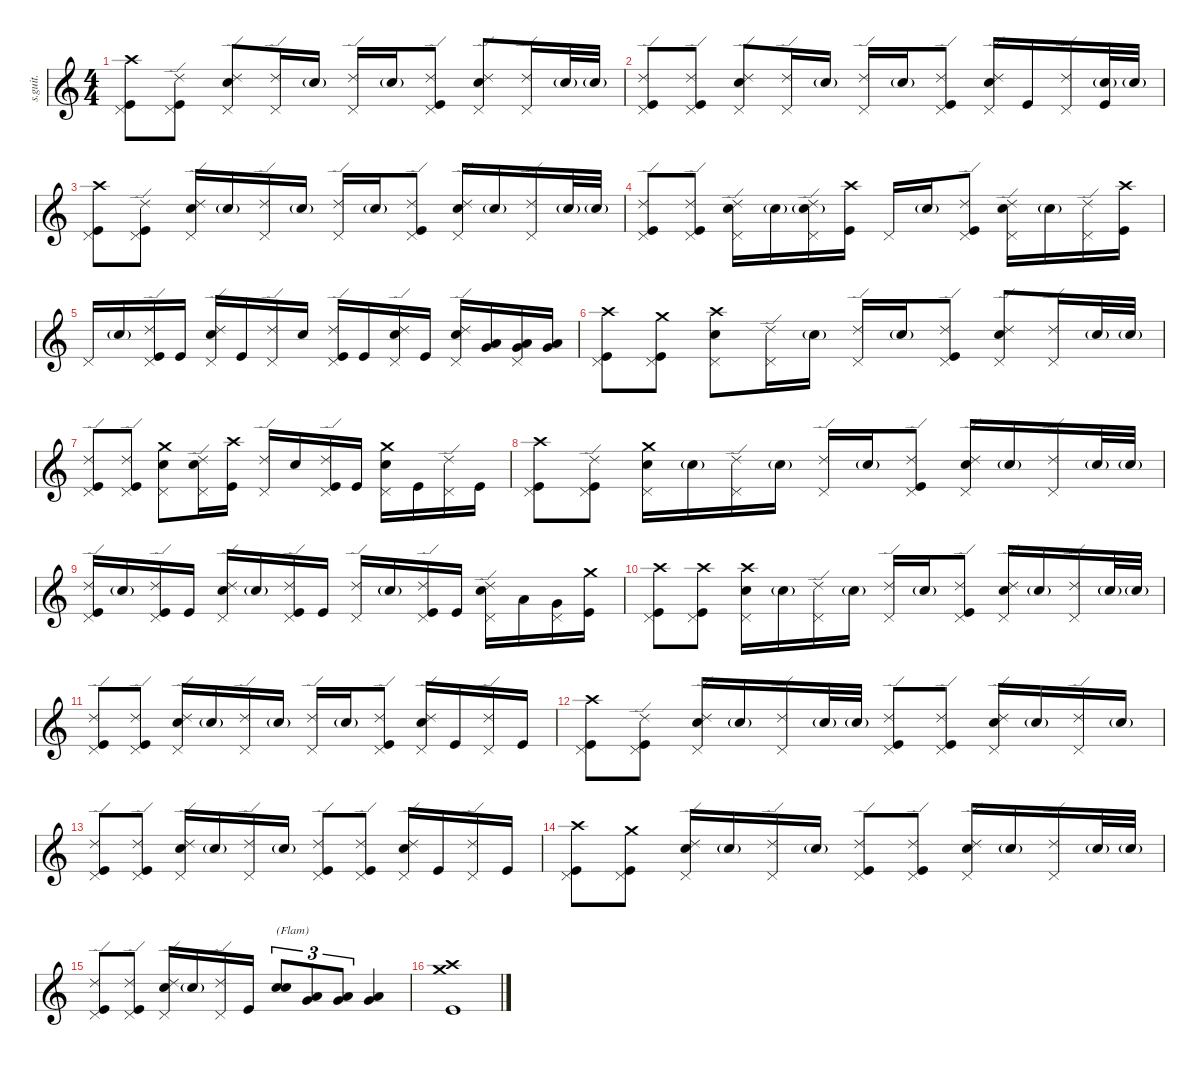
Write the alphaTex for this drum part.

\defaultSystemsLayout 4
\hideDynamics
\bracketExtendMode nobrackets
\track ("Chad Smith" "s.guit.") {instrument percussion}
\staff {score}
\articulation defaults
\ts (4 4)
\tempo (96 hide)
\clef g2
\ks c
("Crash high (hit)" "Kick (hit)" "Pedal Hi-Hat (hit)").8{dy f} ("Ride (edge) 2" "Kick (hit)" "Pedal Hi-Hat (hit)").8 ("Ride (edge) 2" "Snare (hit) 2" "Pedal Hi-Hat (hit)").8 ("Ride (edge) 2" "Pedal Hi-Hat (hit)").16 "Snare (hit) 2"{g}.16{dy pp} ("Ride (edge) 2" "Pedal Hi-Hat (hit)").16{dy f} "Snare (hit) 2"{g}.16{dy pp} ("Ride (edge) 2" "Kick (hit)" "Pedal Hi-Hat (hit)").8{dy f} ("Ride (edge) 2" "Snare (hit) 2" "Pedal Hi-Hat (hit)").8 ("Ride (edge) 2" "Pedal Hi-Hat (hit)").16 "Snare (hit) 2"{g}.32{dy pp} "Snare (hit) 2"{g}.32 |
("Ride (edge) 2" "Kick (hit)" "Pedal Hi-Hat (hit)").8{dy f} ("Ride (edge) 2" "Kick (hit)" "Pedal Hi-Hat (hit)").8 ("Ride (edge) 2" "Snare (hit) 2" "Pedal Hi-Hat (hit)").8 ("Ride (edge) 2" "Pedal Hi-Hat (hit)").16 "Snare (hit) 2"{g}.16{dy pp} ("Ride (edge) 2" "Pedal Hi-Hat (hit)").16{dy f} "Snare (hit) 2"{g}.16{dy pp} ("Ride (edge) 2" "Kick (hit)" "Pedal Hi-Hat (hit)").8{dy f} ("Ride (edge) 2" "Snare (hit) 2" "Pedal Hi-Hat (hit)").16 "Kick (hit)".16 ("Ride (edge) 2" "Pedal Hi-Hat (hit)").16 ("Snare (hit) 2"{g} "Kick (hit)").32 "Snare (hit) 2"{g}.32{dy pp} |
("Crash high (hit)" "Kick (hit)" "Pedal Hi-Hat (hit)").8{dy f} ("Ride (edge) 2" "Kick (hit)" "Pedal Hi-Hat (hit)").8 ("Ride (edge) 2" "Snare (hit) 2" "Pedal Hi-Hat (hit)").16 "Snare (hit) 2"{g}.16{dy pp} ("Ride (edge) 2" "Pedal Hi-Hat (hit)").16{dy f} "Snare (hit) 2"{g}.16{dy pp} ("Ride (edge) 2" "Pedal Hi-Hat (hit)").16{dy f} "Snare (hit) 2"{g}.16{dy pp} ("Ride (edge) 2" "Kick (hit)" "Pedal Hi-Hat (hit)").8{dy f} ("Ride (edge) 2" "Snare (hit) 2" "Pedal Hi-Hat (hit)").16 "Snare (hit) 2"{g}.16{dy pp} ("Ride (edge) 2" "Pedal Hi-Hat (hit)").16{dy f} "Snare (hit) 2"{g}.32{dy pp} "Snare (hit) 2"{g}.32 |
("Ride (edge) 2" "Kick (hit)" "Pedal Hi-Hat (hit)").8{dy f} ("Ride (edge) 2" "Kick (hit)" "Pedal Hi-Hat (hit)").8 ("Ride (edge) 2" "Snare (hit) 2" "Pedal Hi-Hat (hit)").16 "Snare (hit) 2"{g}.16{dy pp} ("Ride (edge) 2" "Snare (hit) 2"{g} "Pedal Hi-Hat (hit)").16{dy f} ("Crash high (hit)" "Kick (hit)").16 "Pedal Hi-Hat (hit)".16{dy fff} "Snare (hit) 2"{g}.16{dy pp} ("Ride (edge) 2" "Kick (hit)" "Pedal Hi-Hat (hit)").8{dy f} ("Ride (edge) 2" "Snare (hit) 2" "Pedal Hi-Hat (hit)").16 "Snare (hit) 2"{g}.16{dy pp} ("Ride (edge) 2" "Pedal Hi-Hat (hit)").16{dy f} ("Crash high (hit)" "Kick (hit)").16 |
"Pedal Hi-Hat (hit)".16{dy fff} "Snare (hit) 2"{g}.16{dy pp} ("Ride (edge) 2" "Kick (hit)" "Pedal Hi-Hat (hit)").16{dy f} "Kick (hit)".16 ("Ride (edge) 2" "Snare (hit) 2" "Pedal Hi-Hat (hit)").16 "Kick (hit)".16 ("Ride (edge) 2" "Pedal Hi-Hat (hit)").16 "Snare (hit) 2".16 ("Ride (edge) 2" "Kick (hit)" "Pedal Hi-Hat (hit)").16 "Kick (hit)".16 ("Ride (edge) 2" "Snare (hit) 2" "Pedal Hi-Hat (hit)").16 "Kick (hit)".16 ("Ride (edge) 2" "Snare (hit) 2" "Pedal Hi-Hat (hit)").16 ("Very Low Tom (hit)" "Low Floor Tom (hit)").16 ("Very Low Tom (hit)" "Low Floor Tom (hit)" "Pedal Hi-Hat (hit)").16 ("Very Low Tom (hit)" "Low Floor Tom (hit)").16 |
("Crash high (hit)" "Kick (hit)" "Pedal Hi-Hat (hit)").8 ("Crash medium (hit)" "Kick (hit)" "Pedal Hi-Hat (hit)").8 ("Crash high (hit)" "Snare (hit) 2" "Pedal Hi-Hat (hit)").8 ("Ride (edge) 2" "Pedal Hi-Hat (hit)").16 "Snare (hit) 2"{g}.16{dy pp} ("Ride (edge) 2" "Pedal Hi-Hat (hit)").16{dy f} "Snare (hit) 2"{g}.16{dy pp} ("Ride (edge) 2" "Kick (hit)" "Pedal Hi-Hat (hit)").8{dy f} ("Ride (edge) 2" "Snare (hit) 2" "Pedal Hi-Hat (hit)").8 ("Ride (edge) 2" "Pedal Hi-Hat (hit)").16 "Snare (hit) 2"{g}.32{dy pp} "Snare (hit) 2"{g}.32 |
("Ride (edge) 2" "Kick (hit)" "Pedal Hi-Hat (hit)").8{dy f} ("Ride (edge) 2" "Kick (hit)" "Pedal Hi-Hat (hit)").8 ("Crash medium (hit)" "Snare (hit) 2" "Pedal Hi-Hat (hit)").8 ("Ride (edge) 2" "Snare (hit) 2" "Pedal Hi-Hat (hit)").16 ("Crash high (hit)" "Kick (hit)").16 ("Ride (edge) 2" "Pedal Hi-Hat (hit)").16 "Snare (hit) 2".16 ("Ride (edge) 2" "Kick (hit)" "Pedal Hi-Hat (hit)").16 "Kick (hit)".16 ("Crash medium (hit)" "Snare (hit) 2" "Pedal Hi-Hat (hit)").16 "Kick (hit)".16 ("Ride (edge) 2" "Pedal Hi-Hat (hit)").16 "Kick (hit)".16 |
("Crash high (hit)" "Kick (hit)" "Pedal Hi-Hat (hit)").8 ("Ride (edge) 2" "Kick (hit)" "Pedal Hi-Hat (hit)").8 ("Crash medium (hit)" "Snare (hit) 2" "Pedal Hi-Hat (hit)").16 "Snare (hit) 2"{g}.16{dy pp} ("Ride (edge) 2" "Pedal Hi-Hat (hit)").16{dy f} "Snare (hit) 2"{g}.16{dy pp} ("Ride (edge) 2" "Pedal Hi-Hat (hit)").16{dy f} "Snare (hit) 2"{g}.16{dy pp} ("Ride (edge) 2" "Kick (hit)" "Pedal Hi-Hat (hit)").8{dy f} ("Ride (edge) 2" "Snare (hit) 2" "Pedal Hi-Hat (hit)").16 "Snare (hit) 2"{g}.16{dy pp} ("Ride (edge) 2" "Pedal Hi-Hat (hit)").16{dy f} "Snare (hit) 2"{g}.32{dy pp} "Snare (hit) 2"{g}.32 |
("Ride (edge) 2" "Kick (hit)" "Pedal Hi-Hat (hit)").16{dy f} "Snare (hit) 2"{g}.16{dy pp} ("Ride (edge) 2" "Kick (hit)" "Pedal Hi-Hat (hit)").16{dy f} "Kick (hit)".16 ("Ride (edge) 2" "Snare (hit) 2" "Pedal Hi-Hat (hit)").16 "Snare (hit) 2"{g}.16{dy pp} ("Ride (edge) 2" "Kick (hit)" "Pedal Hi-Hat (hit)").16{dy f} "Kick (hit)".16 ("Ride (edge) 2" "Pedal Hi-Hat (hit)").16 "Snare (hit) 2"{g}.16{dy pp} ("Ride (edge) 2" "Kick (hit)" "Pedal Hi-Hat (hit)").16{dy f} "Kick (hit)".16 ("Ride (edge) 2" "Snare (hit) 2" "Pedal Hi-Hat (hit)").16 "Low Tom (hit)".16 ("Very Low Tom (hit)" "Pedal Hi-Hat (hit)").16 ("Crash medium (hit)" "Kick (hit)").16 |
("Crash high (hit)" "Kick (hit)" "Pedal Hi-Hat (hit)").8 ("Crash high (hit)" "Kick (hit)" "Pedal Hi-Hat (hit)").8 ("Crash high (hit)" "Snare (hit) 2" "Pedal Hi-Hat (hit)").16 "Snare (hit) 2"{g}.16{dy pp} ("Ride (edge) 2" "Pedal Hi-Hat (hit)").16{dy f} "Snare (hit) 2"{g}.16{dy pp} ("Ride (edge) 2" "Pedal Hi-Hat (hit)").16{dy f} "Snare (hit) 2"{g}.16{dy pp} ("Ride (edge) 2" "Kick (hit)" "Pedal Hi-Hat (hit)").8{dy f} ("Ride (edge) 2" "Snare (hit) 2" "Pedal Hi-Hat (hit)").16 "Snare (hit) 2"{g}.16{dy pp} ("Ride (edge) 2" "Pedal Hi-Hat (hit)").16{dy f} "Snare (hit) 2"{g}.32{dy pp} "Snare (hit) 2"{g}.32 |
("Ride (edge) 2" "Kick (hit)" "Pedal Hi-Hat (hit)").8{dy f} ("Ride (edge) 2" "Kick (hit)" "Pedal Hi-Hat (hit)").8 ("Ride (edge) 2" "Snare (hit) 2" "Pedal Hi-Hat (hit)").16 "Snare (hit) 2"{g}.16{dy pp} ("Ride (edge) 2" "Pedal Hi-Hat (hit)").16{dy f} "Snare (hit) 2"{g}.16{dy pp} ("Ride (edge) 2" "Pedal Hi-Hat (hit)").16{dy f} "Snare (hit) 2"{g}.16{dy pp} ("Ride (edge) 2" "Kick (hit)" "Pedal Hi-Hat (hit)").8{dy f} ("Ride (edge) 2" "Snare (hit) 2" "Pedal Hi-Hat (hit)").16 "Kick (hit)".16 ("Ride (edge) 2" "Pedal Hi-Hat (hit)").16 "Kick (hit)".16 |
("Crash high (hit)" "Kick (hit)" "Pedal Hi-Hat (hit)").8 ("Ride (edge) 2" "Kick (hit)" "Pedal Hi-Hat (hit)").8 ("Ride (edge) 2" "Snare (hit) 2" "Pedal Hi-Hat (hit)").16 "Snare (hit) 2"{g}.16{dy pp} ("Ride (edge) 2" "Pedal Hi-Hat (hit)").16{dy f} "Snare (hit) 2"{g}.32{dy pp} "Snare (hit) 2"{g}.32 ("Ride (edge) 2" "Kick (hit)" "Pedal Hi-Hat (hit)").8{dy f} ("Ride (edge) 2" "Kick (hit)" "Pedal Hi-Hat (hit)").8 ("Ride (edge) 2" "Snare (hit) 2" "Pedal Hi-Hat (hit)").16 "Snare (hit) 2"{g}.16{dy pp} ("Ride (edge) 2" "Pedal Hi-Hat (hit)").16{dy f} "Snare (hit) 2"{g}.16{dy pp} |
("Ride (edge) 2" "Kick (hit)" "Pedal Hi-Hat (hit)").8{dy f} ("Ride (edge) 2" "Kick (hit)" "Pedal Hi-Hat (hit)").8 ("Ride (edge) 2" "Snare (hit) 2" "Pedal Hi-Hat (hit)").16 "Snare (hit) 2"{g}.16{dy pp} ("Ride (edge) 2" "Pedal Hi-Hat (hit)").16{dy f} "Snare (hit) 2"{g}.16{dy pp} ("Ride (edge) 2" "Kick (hit)" "Pedal Hi-Hat (hit)").8{dy f} ("Ride (edge) 2" "Kick (hit)" "Pedal Hi-Hat (hit)").8 ("Ride (edge) 2" "Snare (hit) 2" "Pedal Hi-Hat (hit)").16 "Kick (hit)".16 ("Ride (edge) 2" "Pedal Hi-Hat (hit)").16 "Kick (hit)".16 |
("Crash high (hit)" "Kick (hit)" "Pedal Hi-Hat (hit)").8 ("Crash medium (hit)" "Kick (hit)" "Pedal Hi-Hat (hit)").8 ("Ride (edge) 2" "Snare (hit) 2" "Pedal Hi-Hat (hit)").16 "Snare (hit) 2"{g}.16{dy pp} ("Ride (edge) 2" "Pedal Hi-Hat (hit)").16{dy f} "Snare (hit) 2"{g}.16{dy pp} ("Ride (edge) 2" "Kick (hit)" "Pedal Hi-Hat (hit)").8{dy f} ("Ride (edge) 2" "Kick (hit)" "Pedal Hi-Hat (hit)").8 ("Ride (edge) 2" "Snare (hit) 2" "Pedal Hi-Hat (hit)").16 "Snare (hit) 2"{g}.16{dy pp} ("Ride (edge) 2" "Pedal Hi-Hat (hit)").16{dy f} "Snare (hit) 2"{g}.32{dy pp} "Snare (hit) 2"{g}.32 |
("Ride (edge) 2" "Kick (hit)" "Pedal Hi-Hat (hit)").8{dy f} ("Ride (edge) 2" "Kick (hit)" "Pedal Hi-Hat (hit)").8 ("Ride (edge) 2" "Snare (hit) 2" "Pedal Hi-Hat (hit)").16 "Snare (hit) 2"{g}.16{dy pp} ("Ride (edge) 2" "Pedal Hi-Hat (hit)").16{dy f} "Kick (hit)".16 ("Snare (hit) 2" "Snare (hit) 2").8{tu (3 2) txt "(Flam)"} ("Low Tom (hit)" "Very Low Tom (hit)").8{tu (3 2)} ("Low Tom (hit)" "Very Low Tom (hit)").8{tu (3 2)} ("Very Low Tom (hit)" "Low Floor Tom (hit)").4 |
("Crash medium (hit)" "Crash high (hit)" "Kick (hit)").1
